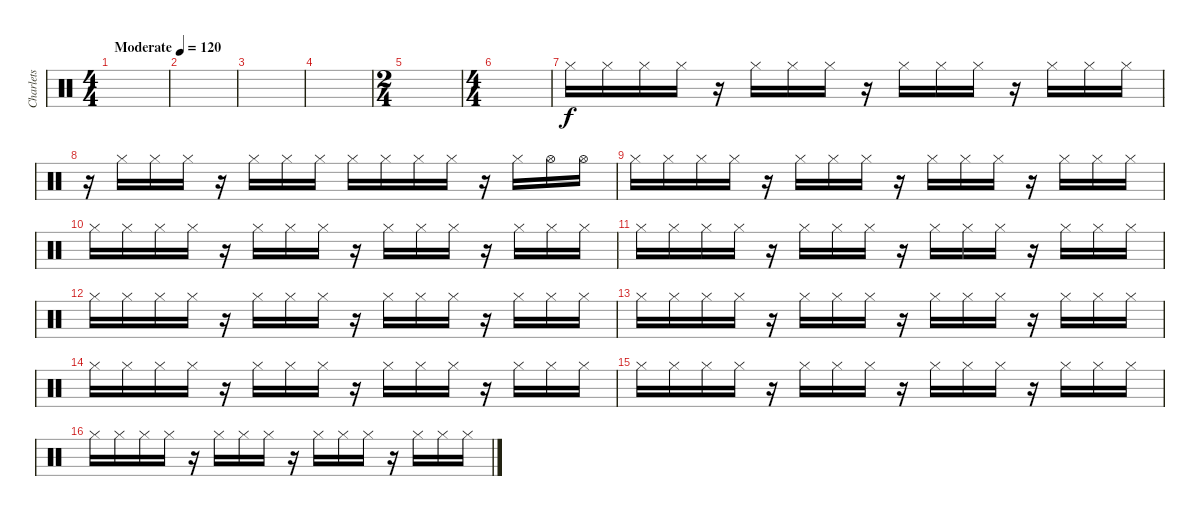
\track ("Charlets" "Charlets") {instrument percussion}
\staff {score}
\articulation defaults
\ts (4 4)
\tempo (120 "Moderate")
\clef neutral
\ks c
|
|
|
|
\ts (2 4)
|
\ts (4 4)
|
"Hi-Hat (closed)".16 "Hi-Hat (closed)".16 "Hi-Hat (closed)".16 "Hi-Hat (closed)".16 r.16 "Hi-Hat (closed)".16 "Hi-Hat (closed)".16 "Hi-Hat (closed)".16 r.16 "Hi-Hat (closed)".16 "Hi-Hat (closed)".16 "Hi-Hat (closed)".16 r.16 "Hi-Hat (closed)".16 "Hi-Hat (closed)".16 "Hi-Hat (closed)".16 |
r.16 "Hi-Hat (closed)".16 "Hi-Hat (closed)".16 "Hi-Hat (closed)".16 r.16 "Hi-Hat (closed)".16 "Hi-Hat (closed)".16 "Hi-Hat (closed)".16 "Hi-Hat (closed)".16 "Hi-Hat (closed)".16 "Hi-Hat (closed)".16 "Hi-Hat (closed)".16 r.16 "Hi-Hat (closed)".16 "Hi-Hat (open)".16 "Hi-Hat (open)".16 |
"Hi-Hat (closed)".16 "Hi-Hat (closed)".16 "Hi-Hat (closed)".16 "Hi-Hat (closed)".16 r.16 "Hi-Hat (closed)".16 "Hi-Hat (closed)".16 "Hi-Hat (closed)".16 r.16 "Hi-Hat (closed)".16 "Hi-Hat (closed)".16 "Hi-Hat (closed)".16 r.16 "Hi-Hat (closed)".16 "Hi-Hat (closed)".16 "Hi-Hat (closed)".16 |
"Hi-Hat (closed)".16 "Hi-Hat (closed)".16 "Hi-Hat (closed)".16 "Hi-Hat (closed)".16 r.16 "Hi-Hat (closed)".16 "Hi-Hat (closed)".16 "Hi-Hat (closed)".16 r.16 "Hi-Hat (closed)".16 "Hi-Hat (closed)".16 "Hi-Hat (closed)".16 r.16 "Hi-Hat (closed)".16 "Hi-Hat (closed)".16 "Hi-Hat (closed)".16 |
"Hi-Hat (closed)".16 "Hi-Hat (closed)".16 "Hi-Hat (closed)".16 "Hi-Hat (closed)".16 r.16 "Hi-Hat (closed)".16 "Hi-Hat (closed)".16 "Hi-Hat (closed)".16 r.16 "Hi-Hat (closed)".16 "Hi-Hat (closed)".16 "Hi-Hat (closed)".16 r.16 "Hi-Hat (closed)".16 "Hi-Hat (closed)".16 "Hi-Hat (closed)".16 |
"Hi-Hat (closed)".16 "Hi-Hat (closed)".16 "Hi-Hat (closed)".16 "Hi-Hat (closed)".16 r.16 "Hi-Hat (closed)".16 "Hi-Hat (closed)".16 "Hi-Hat (closed)".16 r.16 "Hi-Hat (closed)".16 "Hi-Hat (closed)".16 "Hi-Hat (closed)".16 r.16 "Hi-Hat (closed)".16 "Hi-Hat (closed)".16 "Hi-Hat (closed)".16 |
"Hi-Hat (closed)".16 "Hi-Hat (closed)".16 "Hi-Hat (closed)".16 "Hi-Hat (closed)".16 r.16 "Hi-Hat (closed)".16 "Hi-Hat (closed)".16 "Hi-Hat (closed)".16 r.16 "Hi-Hat (closed)".16 "Hi-Hat (closed)".16 "Hi-Hat (closed)".16 r.16 "Hi-Hat (closed)".16 "Hi-Hat (closed)".16 "Hi-Hat (closed)".16 |
"Hi-Hat (closed)".16 "Hi-Hat (closed)".16 "Hi-Hat (closed)".16 "Hi-Hat (closed)".16 r.16 "Hi-Hat (closed)".16 "Hi-Hat (closed)".16 "Hi-Hat (closed)".16 r.16 "Hi-Hat (closed)".16 "Hi-Hat (closed)".16 "Hi-Hat (closed)".16 r.16 "Hi-Hat (closed)".16 "Hi-Hat (closed)".16 "Hi-Hat (closed)".16 |
"Hi-Hat (closed)".16 "Hi-Hat (closed)".16 "Hi-Hat (closed)".16 "Hi-Hat (closed)".16 r.16 "Hi-Hat (closed)".16 "Hi-Hat (closed)".16 "Hi-Hat (closed)".16 r.16 "Hi-Hat (closed)".16 "Hi-Hat (closed)".16 "Hi-Hat (closed)".16 r.16 "Hi-Hat (closed)".16 "Hi-Hat (closed)".16 "Hi-Hat (closed)".16 |
"Hi-Hat (closed)".16 "Hi-Hat (closed)".16 "Hi-Hat (closed)".16 "Hi-Hat (closed)".16 r.16 "Hi-Hat (closed)".16 "Hi-Hat (closed)".16 "Hi-Hat (closed)".16 r.16 "Hi-Hat (closed)".16 "Hi-Hat (closed)".16 "Hi-Hat (closed)".16 r.16 "Hi-Hat (closed)".16 "Hi-Hat (closed)".16 "Hi-Hat (closed)".16
